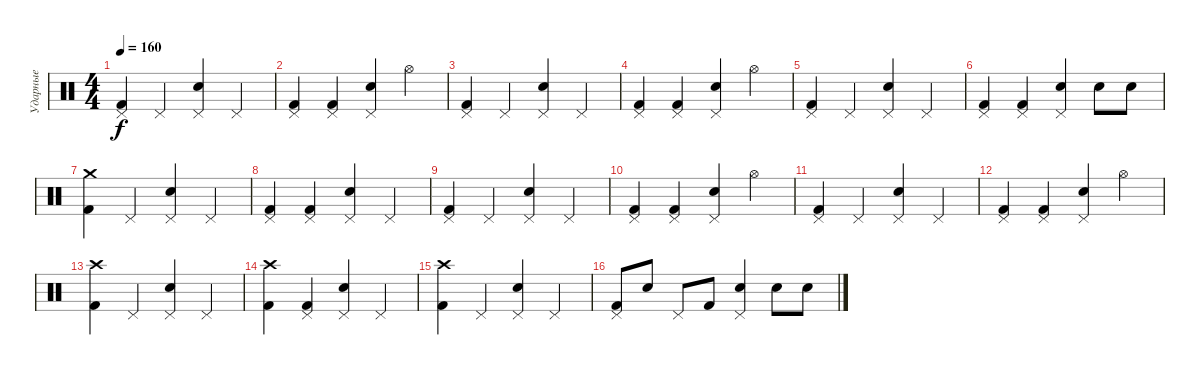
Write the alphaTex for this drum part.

\track ("Ударные" "Ударные") {instrument percussion}
\staff {score}
\articulation defaults
\ts (4 4)
\tempo 160
\clef neutral
\ks c
("Pedal Hi-Hat (hit)" "Kick (hit) 2").4{dy f} "Pedal Hi-Hat (hit)".4 ("Snare (hit) 2" "Pedal Hi-Hat (hit)").4 "Pedal Hi-Hat (hit)".4 |
("Pedal Hi-Hat (hit)" "Kick (hit) 2").4 ("Pedal Hi-Hat (hit)" "Kick (hit) 2").4 ("Snare (hit) 2" "Pedal Hi-Hat (hit)").4 "Hi-Hat (open)".4 |
("Pedal Hi-Hat (hit)" "Kick (hit) 2").4 "Pedal Hi-Hat (hit)".4 ("Snare (hit) 2" "Pedal Hi-Hat (hit)").4 "Pedal Hi-Hat (hit)".4 |
("Pedal Hi-Hat (hit)" "Kick (hit) 2").4 ("Pedal Hi-Hat (hit)" "Kick (hit) 2").4 ("Snare (hit) 2" "Pedal Hi-Hat (hit)").4 "Hi-Hat (open)".4 |
("Pedal Hi-Hat (hit)" "Kick (hit) 2").4 "Pedal Hi-Hat (hit)".4 ("Snare (hit) 2" "Pedal Hi-Hat (hit)").4 "Pedal Hi-Hat (hit)".4 |
("Pedal Hi-Hat (hit)" "Kick (hit) 2").4 ("Pedal Hi-Hat (hit)" "Kick (hit) 2").4 ("Snare (hit) 2" "Pedal Hi-Hat (hit)").4 "Snare (hit) 2".8 "Snare (hit) 2".8 |
("Crash medium (hit)" "Kick (hit) 2").4 "Pedal Hi-Hat (hit)".4 ("Snare (hit) 2" "Pedal Hi-Hat (hit)").4 "Pedal Hi-Hat (hit)".4 |
("Pedal Hi-Hat (hit)" "Kick (hit) 2").4 ("Pedal Hi-Hat (hit)" "Kick (hit) 2").4 ("Snare (hit) 2" "Pedal Hi-Hat (hit)").4 "Pedal Hi-Hat (hit)".4 |
("Pedal Hi-Hat (hit)" "Kick (hit) 2").4 "Pedal Hi-Hat (hit)".4 ("Snare (hit) 2" "Pedal Hi-Hat (hit)").4 "Pedal Hi-Hat (hit)".4 |
("Pedal Hi-Hat (hit)" "Kick (hit) 2").4 ("Pedal Hi-Hat (hit)" "Kick (hit) 2").4 ("Snare (hit) 2" "Pedal Hi-Hat (hit)").4 "Hi-Hat (open)".4 |
("Pedal Hi-Hat (hit)" "Kick (hit) 2").4 "Pedal Hi-Hat (hit)".4 ("Snare (hit) 2" "Pedal Hi-Hat (hit)").4 "Pedal Hi-Hat (hit)".4 |
("Pedal Hi-Hat (hit)" "Kick (hit) 2").4 ("Pedal Hi-Hat (hit)" "Kick (hit) 2").4 ("Snare (hit) 2" "Pedal Hi-Hat (hit)").4 "Hi-Hat (open)".4 |
("Crash high (hit)" "Kick (hit) 2").4 "Pedal Hi-Hat (hit)".4 ("Snare (hit) 2" "Pedal Hi-Hat (hit)").4 "Pedal Hi-Hat (hit)".4 |
("Crash high (hit)" "Kick (hit) 2").4 ("Pedal Hi-Hat (hit)" "Kick (hit) 2").4 ("Snare (hit) 2" "Pedal Hi-Hat (hit)").4 "Pedal Hi-Hat (hit)".4 |
("Crash high (hit)" "Kick (hit) 2").4 "Pedal Hi-Hat (hit)".4 ("Snare (hit) 2" "Pedal Hi-Hat (hit)").4 "Pedal Hi-Hat (hit)".4 |
("Pedal Hi-Hat (hit)" "Kick (hit) 2").8 "Snare (hit) 2".8 "Pedal Hi-Hat (hit)".8 "Kick (hit) 2".8 ("Snare (hit) 2" "Pedal Hi-Hat (hit)").4 "Snare (hit) 2".8 "Snare (hit) 2".8
